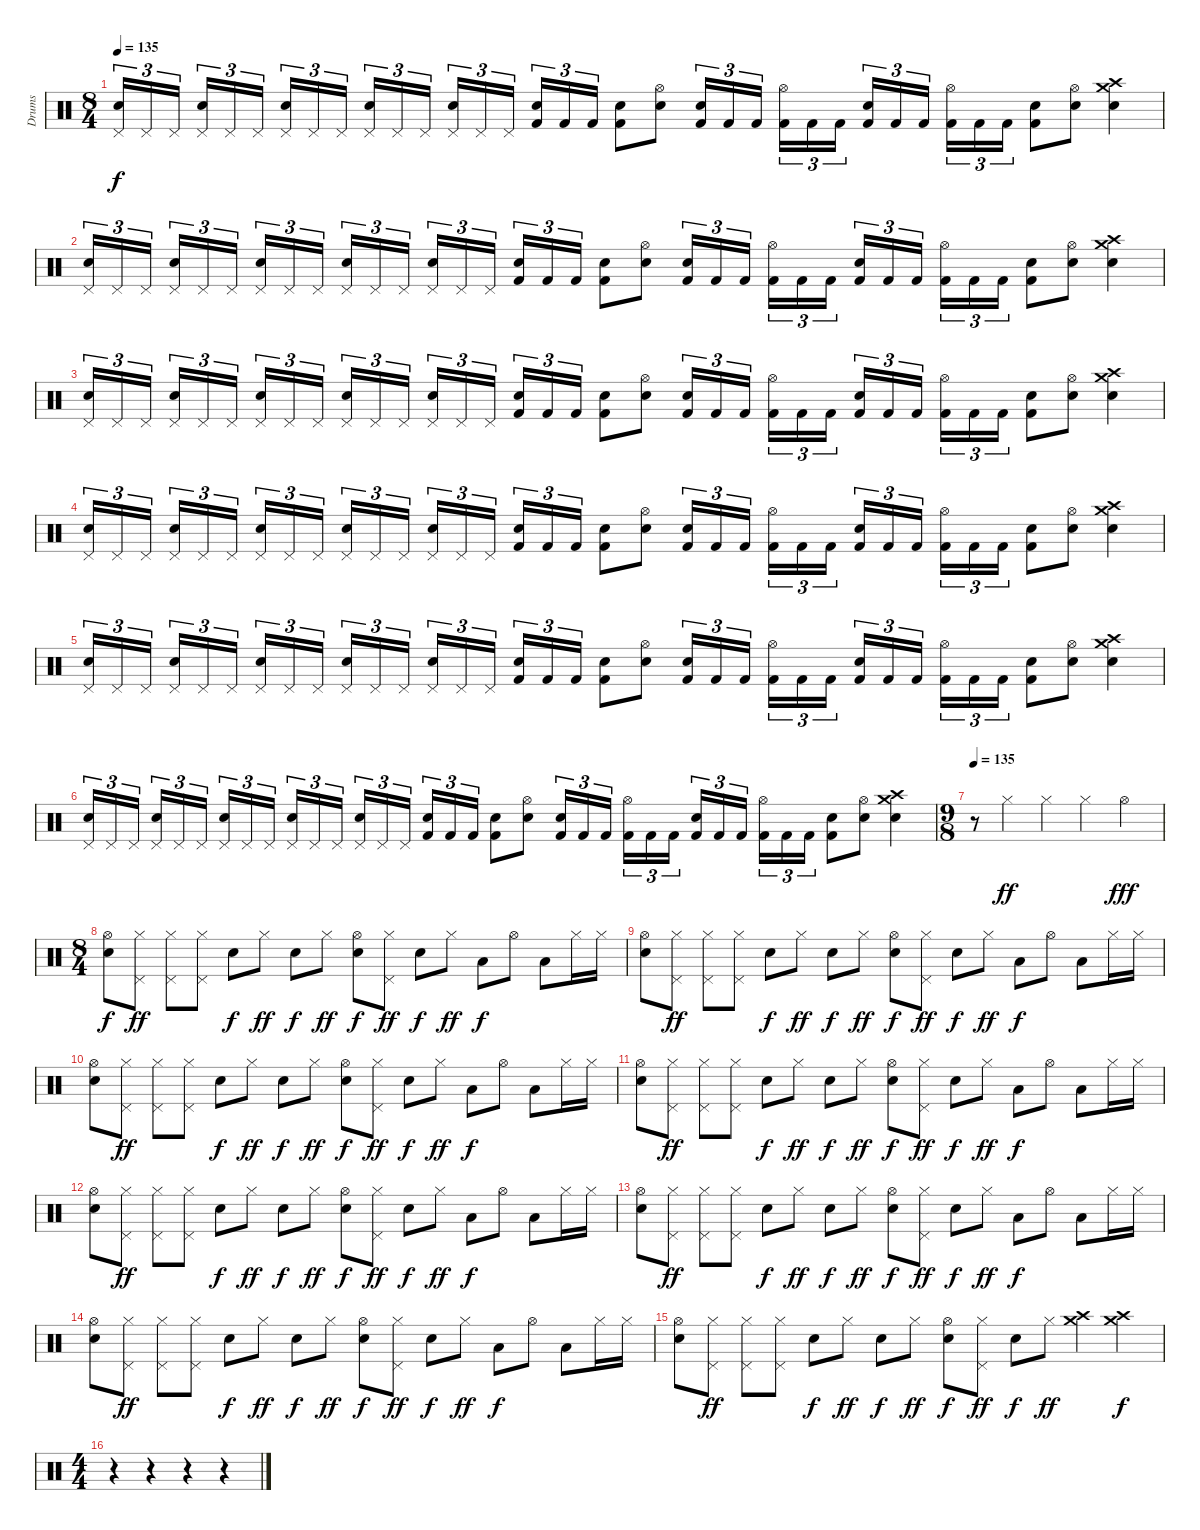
\track ("Drums" "Drums") {instrument percussion}
\staff {score}
\articulation defaults
\ts (8 4)
\tempo 135
\clef neutral
\ks c
("Pedal Hi-Hat (hit)" "Electric Snare (hit)").16{tu (3 2) dy f} "Pedal Hi-Hat (hit)".16{tu (3 2)} "Pedal Hi-Hat (hit)".16{tu (3 2)} ("Electric Snare (hit)" "Pedal Hi-Hat (hit)").16{tu (3 2)} "Pedal Hi-Hat (hit)".16{tu (3 2)} "Pedal Hi-Hat (hit)".16{tu (3 2)} ("Pedal Hi-Hat (hit)" "Electric Snare (hit)").16{tu (3 2)} "Pedal Hi-Hat (hit)".16{tu (3 2)} "Pedal Hi-Hat (hit)".16{tu (3 2)} ("Electric Snare (hit)" "Pedal Hi-Hat (hit)").16{tu (3 2)} "Pedal Hi-Hat (hit)".16{tu (3 2)} "Pedal Hi-Hat (hit)".16{tu (3 2)} ("Pedal Hi-Hat (hit)" "Electric Snare (hit)").16{tu (3 2)} "Pedal Hi-Hat (hit)".16{tu (3 2)} "Pedal Hi-Hat (hit)".16{tu (3 2)} ("Electric Snare (hit)" "Kick (hit) 2").16{tu (3 2)} "Kick (hit) 2".16{tu (3 2)} "Kick (hit) 2".16{tu (3 2)} ("Kick (hit) 2" "Electric Snare (hit)").8 ("Electric Snare (hit)" "Hi-Hat (open)").8 ("Kick (hit) 2" "Electric Snare (hit)").16{tu (3 2)} "Kick (hit) 2".16{tu (3 2)} "Kick (hit) 2".16{tu (3 2)} ("Hi-Hat (open)" "Kick (hit) 2").16{tu (3 2)} "Kick (hit) 2".16{tu (3 2)} "Kick (hit) 2".16{tu (3 2)} ("Kick (hit) 2" "Electric Snare (hit)").16{tu (3 2)} "Kick (hit) 2".16{tu (3 2)} "Kick (hit) 2".16{tu (3 2)} ("Hi-Hat (open)" "Kick (hit) 2").16{tu (3 2)} "Kick (hit) 2".16{tu (3 2)} "Kick (hit) 2".16{tu (3 2)} ("Kick (hit) 2" "Electric Snare (hit)").8 ("Hi-Hat (open)" "Electric Snare (hit)").8 ("Crash high (hit)" "Crash medium (hit)" "Electric Snare (hit)").4 |
("Pedal Hi-Hat (hit)" "Electric Snare (hit)").16{tu (3 2)} "Pedal Hi-Hat (hit)".16{tu (3 2)} "Pedal Hi-Hat (hit)".16{tu (3 2)} ("Electric Snare (hit)" "Pedal Hi-Hat (hit)").16{tu (3 2)} "Pedal Hi-Hat (hit)".16{tu (3 2)} "Pedal Hi-Hat (hit)".16{tu (3 2)} ("Pedal Hi-Hat (hit)" "Electric Snare (hit)").16{tu (3 2)} "Pedal Hi-Hat (hit)".16{tu (3 2)} "Pedal Hi-Hat (hit)".16{tu (3 2)} ("Electric Snare (hit)" "Pedal Hi-Hat (hit)").16{tu (3 2)} "Pedal Hi-Hat (hit)".16{tu (3 2)} "Pedal Hi-Hat (hit)".16{tu (3 2)} ("Pedal Hi-Hat (hit)" "Electric Snare (hit)").16{tu (3 2)} "Pedal Hi-Hat (hit)".16{tu (3 2)} "Pedal Hi-Hat (hit)".16{tu (3 2)} ("Electric Snare (hit)" "Kick (hit) 2").16{tu (3 2)} "Kick (hit) 2".16{tu (3 2)} "Kick (hit) 2".16{tu (3 2)} ("Kick (hit) 2" "Electric Snare (hit)").8 ("Electric Snare (hit)" "Hi-Hat (open)").8 ("Kick (hit) 2" "Electric Snare (hit)").16{tu (3 2)} "Kick (hit) 2".16{tu (3 2)} "Kick (hit) 2".16{tu (3 2)} ("Hi-Hat (open)" "Kick (hit) 2").16{tu (3 2)} "Kick (hit) 2".16{tu (3 2)} "Kick (hit) 2".16{tu (3 2)} ("Kick (hit) 2" "Electric Snare (hit)").16{tu (3 2)} "Kick (hit) 2".16{tu (3 2)} "Kick (hit) 2".16{tu (3 2)} ("Hi-Hat (open)" "Kick (hit) 2").16{tu (3 2)} "Kick (hit) 2".16{tu (3 2)} "Kick (hit) 2".16{tu (3 2)} ("Kick (hit) 2" "Electric Snare (hit)").8 ("Hi-Hat (open)" "Electric Snare (hit)").8 ("Crash high (hit)" "Crash medium (hit)" "Electric Snare (hit)").4 |
("Pedal Hi-Hat (hit)" "Electric Snare (hit)").16{tu (3 2)} "Pedal Hi-Hat (hit)".16{tu (3 2)} "Pedal Hi-Hat (hit)".16{tu (3 2)} ("Electric Snare (hit)" "Pedal Hi-Hat (hit)").16{tu (3 2)} "Pedal Hi-Hat (hit)".16{tu (3 2)} "Pedal Hi-Hat (hit)".16{tu (3 2)} ("Pedal Hi-Hat (hit)" "Electric Snare (hit)").16{tu (3 2)} "Pedal Hi-Hat (hit)".16{tu (3 2)} "Pedal Hi-Hat (hit)".16{tu (3 2)} ("Electric Snare (hit)" "Pedal Hi-Hat (hit)").16{tu (3 2)} "Pedal Hi-Hat (hit)".16{tu (3 2)} "Pedal Hi-Hat (hit)".16{tu (3 2)} ("Pedal Hi-Hat (hit)" "Electric Snare (hit)").16{tu (3 2)} "Pedal Hi-Hat (hit)".16{tu (3 2)} "Pedal Hi-Hat (hit)".16{tu (3 2)} ("Electric Snare (hit)" "Kick (hit) 2").16{tu (3 2)} "Kick (hit) 2".16{tu (3 2)} "Kick (hit) 2".16{tu (3 2)} ("Kick (hit) 2" "Electric Snare (hit)").8 ("Electric Snare (hit)" "Hi-Hat (open)").8 ("Kick (hit) 2" "Electric Snare (hit)").16{tu (3 2)} "Kick (hit) 2".16{tu (3 2)} "Kick (hit) 2".16{tu (3 2)} ("Hi-Hat (open)" "Kick (hit) 2").16{tu (3 2)} "Kick (hit) 2".16{tu (3 2)} "Kick (hit) 2".16{tu (3 2)} ("Kick (hit) 2" "Electric Snare (hit)").16{tu (3 2)} "Kick (hit) 2".16{tu (3 2)} "Kick (hit) 2".16{tu (3 2)} ("Hi-Hat (open)" "Kick (hit) 2").16{tu (3 2)} "Kick (hit) 2".16{tu (3 2)} "Kick (hit) 2".16{tu (3 2)} ("Kick (hit) 2" "Electric Snare (hit)").8 ("Hi-Hat (open)" "Electric Snare (hit)").8 ("Crash high (hit)" "Crash medium (hit)" "Electric Snare (hit)").4 |
("Pedal Hi-Hat (hit)" "Electric Snare (hit)").16{tu (3 2)} "Pedal Hi-Hat (hit)".16{tu (3 2)} "Pedal Hi-Hat (hit)".16{tu (3 2)} ("Electric Snare (hit)" "Pedal Hi-Hat (hit)").16{tu (3 2)} "Pedal Hi-Hat (hit)".16{tu (3 2)} "Pedal Hi-Hat (hit)".16{tu (3 2)} ("Pedal Hi-Hat (hit)" "Electric Snare (hit)").16{tu (3 2)} "Pedal Hi-Hat (hit)".16{tu (3 2)} "Pedal Hi-Hat (hit)".16{tu (3 2)} ("Electric Snare (hit)" "Pedal Hi-Hat (hit)").16{tu (3 2)} "Pedal Hi-Hat (hit)".16{tu (3 2)} "Pedal Hi-Hat (hit)".16{tu (3 2)} ("Pedal Hi-Hat (hit)" "Electric Snare (hit)").16{tu (3 2)} "Pedal Hi-Hat (hit)".16{tu (3 2)} "Pedal Hi-Hat (hit)".16{tu (3 2)} ("Electric Snare (hit)" "Kick (hit) 2").16{tu (3 2)} "Kick (hit) 2".16{tu (3 2)} "Kick (hit) 2".16{tu (3 2)} ("Kick (hit) 2" "Electric Snare (hit)").8 ("Electric Snare (hit)" "Hi-Hat (open)").8 ("Kick (hit) 2" "Electric Snare (hit)").16{tu (3 2)} "Kick (hit) 2".16{tu (3 2)} "Kick (hit) 2".16{tu (3 2)} ("Hi-Hat (open)" "Kick (hit) 2").16{tu (3 2)} "Kick (hit) 2".16{tu (3 2)} "Kick (hit) 2".16{tu (3 2)} ("Kick (hit) 2" "Electric Snare (hit)").16{tu (3 2)} "Kick (hit) 2".16{tu (3 2)} "Kick (hit) 2".16{tu (3 2)} ("Hi-Hat (open)" "Kick (hit) 2").16{tu (3 2)} "Kick (hit) 2".16{tu (3 2)} "Kick (hit) 2".16{tu (3 2)} ("Kick (hit) 2" "Electric Snare (hit)").8 ("Hi-Hat (open)" "Electric Snare (hit)").8 ("Crash high (hit)" "Crash medium (hit)" "Electric Snare (hit)").4 |
("Pedal Hi-Hat (hit)" "Electric Snare (hit)").16{tu (3 2)} "Pedal Hi-Hat (hit)".16{tu (3 2)} "Pedal Hi-Hat (hit)".16{tu (3 2)} ("Electric Snare (hit)" "Pedal Hi-Hat (hit)").16{tu (3 2)} "Pedal Hi-Hat (hit)".16{tu (3 2)} "Pedal Hi-Hat (hit)".16{tu (3 2)} ("Pedal Hi-Hat (hit)" "Electric Snare (hit)").16{tu (3 2)} "Pedal Hi-Hat (hit)".16{tu (3 2)} "Pedal Hi-Hat (hit)".16{tu (3 2)} ("Electric Snare (hit)" "Pedal Hi-Hat (hit)").16{tu (3 2)} "Pedal Hi-Hat (hit)".16{tu (3 2)} "Pedal Hi-Hat (hit)".16{tu (3 2)} ("Pedal Hi-Hat (hit)" "Electric Snare (hit)").16{tu (3 2)} "Pedal Hi-Hat (hit)".16{tu (3 2)} "Pedal Hi-Hat (hit)".16{tu (3 2)} ("Electric Snare (hit)" "Kick (hit) 2").16{tu (3 2)} "Kick (hit) 2".16{tu (3 2)} "Kick (hit) 2".16{tu (3 2)} ("Kick (hit) 2" "Electric Snare (hit)").8 ("Electric Snare (hit)" "Hi-Hat (open)").8 ("Kick (hit) 2" "Electric Snare (hit)").16{tu (3 2)} "Kick (hit) 2".16{tu (3 2)} "Kick (hit) 2".16{tu (3 2)} ("Hi-Hat (open)" "Kick (hit) 2").16{tu (3 2)} "Kick (hit) 2".16{tu (3 2)} "Kick (hit) 2".16{tu (3 2)} ("Kick (hit) 2" "Electric Snare (hit)").16{tu (3 2)} "Kick (hit) 2".16{tu (3 2)} "Kick (hit) 2".16{tu (3 2)} ("Hi-Hat (open)" "Kick (hit) 2").16{tu (3 2)} "Kick (hit) 2".16{tu (3 2)} "Kick (hit) 2".16{tu (3 2)} ("Kick (hit) 2" "Electric Snare (hit)").8 ("Hi-Hat (open)" "Electric Snare (hit)").8 ("Crash high (hit)" "Crash medium (hit)" "Electric Snare (hit)").4 |
("Pedal Hi-Hat (hit)" "Electric Snare (hit)").16{tu (3 2)} "Pedal Hi-Hat (hit)".16{tu (3 2)} "Pedal Hi-Hat (hit)".16{tu (3 2)} ("Electric Snare (hit)" "Pedal Hi-Hat (hit)").16{tu (3 2)} "Pedal Hi-Hat (hit)".16{tu (3 2)} "Pedal Hi-Hat (hit)".16{tu (3 2)} ("Pedal Hi-Hat (hit)" "Electric Snare (hit)").16{tu (3 2)} "Pedal Hi-Hat (hit)".16{tu (3 2)} "Pedal Hi-Hat (hit)".16{tu (3 2)} ("Electric Snare (hit)" "Pedal Hi-Hat (hit)").16{tu (3 2)} "Pedal Hi-Hat (hit)".16{tu (3 2)} "Pedal Hi-Hat (hit)".16{tu (3 2)} ("Pedal Hi-Hat (hit)" "Electric Snare (hit)").16{tu (3 2)} "Pedal Hi-Hat (hit)".16{tu (3 2)} "Pedal Hi-Hat (hit)".16{tu (3 2)} ("Electric Snare (hit)" "Kick (hit) 2").16{tu (3 2)} "Kick (hit) 2".16{tu (3 2)} "Kick (hit) 2".16{tu (3 2)} ("Kick (hit) 2" "Electric Snare (hit)").8 ("Electric Snare (hit)" "Hi-Hat (open)").8 ("Kick (hit) 2" "Electric Snare (hit)").16{tu (3 2)} "Kick (hit) 2".16{tu (3 2)} "Kick (hit) 2".16{tu (3 2)} ("Hi-Hat (open)" "Kick (hit) 2").16{tu (3 2)} "Kick (hit) 2".16{tu (3 2)} "Kick (hit) 2".16{tu (3 2)} ("Kick (hit) 2" "Electric Snare (hit)").16{tu (3 2)} "Kick (hit) 2".16{tu (3 2)} "Kick (hit) 2".16{tu (3 2)} ("Hi-Hat (open)" "Kick (hit) 2").16{tu (3 2)} "Kick (hit) 2".16{tu (3 2)} "Kick (hit) 2".16{tu (3 2)} ("Kick (hit) 2" "Electric Snare (hit)").8 ("Hi-Hat (open)" "Electric Snare (hit)").8 ("Crash high (hit)" "Crash medium (hit)" "Electric Snare (hit)").4 |
\ts (9 8)
\tempo 135
r.8 "Hi-Hat (closed)".4{dy ff} "Hi-Hat (closed)".4 "Hi-Hat (closed)".4 "Hi-Hat (open)".4{dy fff} |
\ts (8 4)
("Hi-Hat (open)" "Electric Snare (hit)").8{dy f} ("Pedal Hi-Hat (hit)" "Hi-Hat (closed)").8{dy ff} ("Hi-Hat (closed)" "Pedal Hi-Hat (hit)").8 ("Hi-Hat (closed)" "Pedal Hi-Hat (hit)").8 "Electric Snare (hit)".8{dy f} "Hi-Hat (closed)".8{dy ff} "Electric Snare (hit)".8{dy f} "Hi-Hat (closed)".8{dy ff} ("Hi-Hat (open)" "Electric Snare (hit)").8{dy f} ("Pedal Hi-Hat (hit)" "Hi-Hat (closed)").8{dy ff} "Electric Snare (hit)".8{dy f} "Hi-Hat (closed)".8{dy ff} "Low Tom (hit)".8{dy f} "Hi-Hat (open)".8 "Low Tom (hit)".8 "Hi-Hat (closed)".16 "Hi-Hat (closed)".16 |
("Hi-Hat (open)" "Electric Snare (hit)").8 ("Pedal Hi-Hat (hit)" "Hi-Hat (closed)").8{dy ff} ("Hi-Hat (closed)" "Pedal Hi-Hat (hit)").8 ("Hi-Hat (closed)" "Pedal Hi-Hat (hit)").8 "Electric Snare (hit)".8{dy f} "Hi-Hat (closed)".8{dy ff} "Electric Snare (hit)".8{dy f} "Hi-Hat (closed)".8{dy ff} ("Hi-Hat (open)" "Electric Snare (hit)").8{dy f} ("Pedal Hi-Hat (hit)" "Hi-Hat (closed)").8{dy ff} "Electric Snare (hit)".8{dy f} "Hi-Hat (closed)".8{dy ff} "Low Tom (hit)".8{dy f} "Hi-Hat (open)".8 "Low Tom (hit)".8 "Hi-Hat (closed)".16 "Hi-Hat (closed)".16 |
("Hi-Hat (open)" "Electric Snare (hit)").8 ("Pedal Hi-Hat (hit)" "Hi-Hat (closed)").8{dy ff} ("Hi-Hat (closed)" "Pedal Hi-Hat (hit)").8 ("Hi-Hat (closed)" "Pedal Hi-Hat (hit)").8 "Electric Snare (hit)".8{dy f} "Hi-Hat (closed)".8{dy ff} "Electric Snare (hit)".8{dy f} "Hi-Hat (closed)".8{dy ff} ("Hi-Hat (open)" "Electric Snare (hit)").8{dy f} ("Pedal Hi-Hat (hit)" "Hi-Hat (closed)").8{dy ff} "Electric Snare (hit)".8{dy f} "Hi-Hat (closed)".8{dy ff} "Low Tom (hit)".8{dy f} "Hi-Hat (open)".8 "Low Tom (hit)".8 "Hi-Hat (closed)".16 "Hi-Hat (closed)".16 |
("Hi-Hat (open)" "Electric Snare (hit)").8 ("Pedal Hi-Hat (hit)" "Hi-Hat (closed)").8{dy ff} ("Hi-Hat (closed)" "Pedal Hi-Hat (hit)").8 ("Hi-Hat (closed)" "Pedal Hi-Hat (hit)").8 "Electric Snare (hit)".8{dy f} "Hi-Hat (closed)".8{dy ff} "Electric Snare (hit)".8{dy f} "Hi-Hat (closed)".8{dy ff} ("Hi-Hat (open)" "Electric Snare (hit)").8{dy f} ("Pedal Hi-Hat (hit)" "Hi-Hat (closed)").8{dy ff} "Electric Snare (hit)".8{dy f} "Hi-Hat (closed)".8{dy ff} "Low Tom (hit)".8{dy f} "Hi-Hat (open)".8 "Low Tom (hit)".8 "Hi-Hat (closed)".16 "Hi-Hat (closed)".16 |
("Hi-Hat (open)" "Electric Snare (hit)").8 ("Pedal Hi-Hat (hit)" "Hi-Hat (closed)").8{dy ff} ("Hi-Hat (closed)" "Pedal Hi-Hat (hit)").8 ("Hi-Hat (closed)" "Pedal Hi-Hat (hit)").8 "Electric Snare (hit)".8{dy f} "Hi-Hat (closed)".8{dy ff} "Electric Snare (hit)".8{dy f} "Hi-Hat (closed)".8{dy ff} ("Hi-Hat (open)" "Electric Snare (hit)").8{dy f} ("Pedal Hi-Hat (hit)" "Hi-Hat (closed)").8{dy ff} "Electric Snare (hit)".8{dy f} "Hi-Hat (closed)".8{dy ff} "Low Tom (hit)".8{dy f} "Hi-Hat (open)".8 "Low Tom (hit)".8 "Hi-Hat (closed)".16 "Hi-Hat (closed)".16 |
("Hi-Hat (open)" "Electric Snare (hit)").8 ("Pedal Hi-Hat (hit)" "Hi-Hat (closed)").8{dy ff} ("Hi-Hat (closed)" "Pedal Hi-Hat (hit)").8 ("Hi-Hat (closed)" "Pedal Hi-Hat (hit)").8 "Electric Snare (hit)".8{dy f} "Hi-Hat (closed)".8{dy ff} "Electric Snare (hit)".8{dy f} "Hi-Hat (closed)".8{dy ff} ("Hi-Hat (open)" "Electric Snare (hit)").8{dy f} ("Pedal Hi-Hat (hit)" "Hi-Hat (closed)").8{dy ff} "Electric Snare (hit)".8{dy f} "Hi-Hat (closed)".8{dy ff} "Low Tom (hit)".8{dy f} "Hi-Hat (open)".8 "Low Tom (hit)".8 "Hi-Hat (closed)".16 "Hi-Hat (closed)".16 |
("Hi-Hat (open)" "Electric Snare (hit)").8 ("Pedal Hi-Hat (hit)" "Hi-Hat (closed)").8{dy ff} ("Hi-Hat (closed)" "Pedal Hi-Hat (hit)").8 ("Hi-Hat (closed)" "Pedal Hi-Hat (hit)").8 "Electric Snare (hit)".8{dy f} "Hi-Hat (closed)".8{dy ff} "Electric Snare (hit)".8{dy f} "Hi-Hat (closed)".8{dy ff} ("Hi-Hat (open)" "Electric Snare (hit)").8{dy f} ("Pedal Hi-Hat (hit)" "Hi-Hat (closed)").8{dy ff} "Electric Snare (hit)".8{dy f} "Hi-Hat (closed)".8{dy ff} "Low Tom (hit)".8{dy f} "Hi-Hat (open)".8 "Low Tom (hit)".8 "Hi-Hat (closed)".16 "Hi-Hat (closed)".16 |
("Hi-Hat (open)" "Electric Snare (hit)").8 ("Pedal Hi-Hat (hit)" "Hi-Hat (closed)").8{dy ff} ("Hi-Hat (closed)" "Pedal Hi-Hat (hit)").8 ("Hi-Hat (closed)" "Pedal Hi-Hat (hit)").8 "Electric Snare (hit)".8{dy f} "Hi-Hat (closed)".8{dy ff} "Electric Snare (hit)".8{dy f} "Hi-Hat (closed)".8{dy ff} ("Hi-Hat (open)" "Electric Snare (hit)").8{dy f} ("Pedal Hi-Hat (hit)" "Hi-Hat (closed)").8{dy ff} "Electric Snare (hit)".8{dy f} "Hi-Hat (closed)".8{dy ff} ("Crash medium (hit)" "Crash high (hit)").4 ("Crash medium (hit)" "Crash high (hit)").4{dy f} |
\ts (4 4)
r.4 r.4 r.4 r.4
